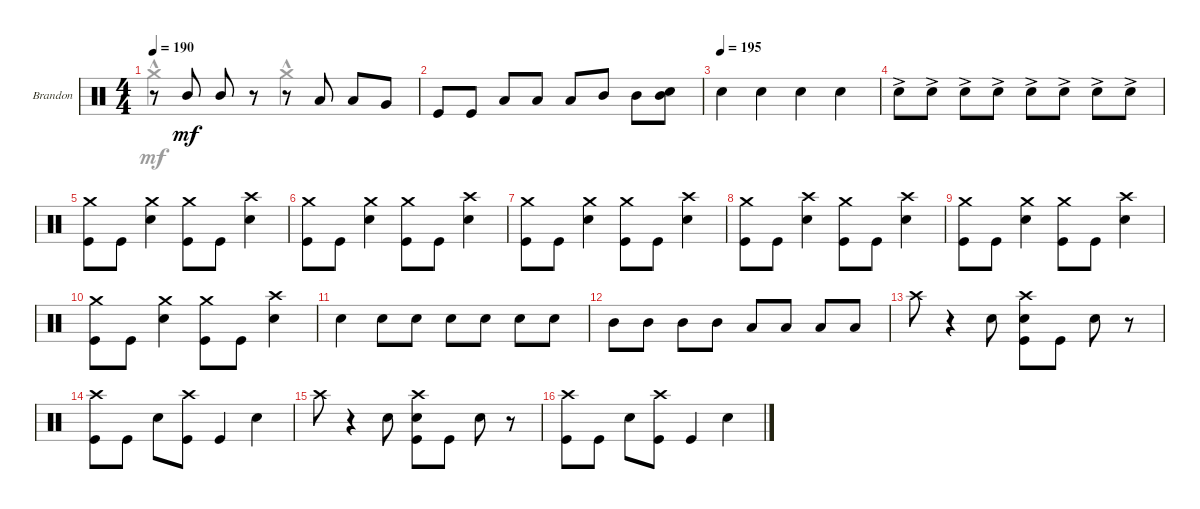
\defaultSystemsLayout 4
\bracketExtendMode groupsimilarinstruments
\firstSystemTrackNameOrientation horizontal
\otherSystemsTrackNameOrientation horizontal
\track ("Drumkit" "Brandon") {instrument percussion}
\staff {score}
\articulation defaults
\voice
\ts (4 4)
\tempo 190
\clef neutral
\scale
0.333333
\ks c
r.8{dy mf} "Mid Tom (hit)".8 "Mid Tom (hit)".8 r.8 r.8 "Low Tom (hit)".8 "Low Tom (hit)".8 "Very Low Tom (hit)".8 |
\scale
0.333333 "Kick (hit)".8 "Kick (hit)".8 "Low Tom (hit)".8 "Low Tom (hit)".8 "Low Tom (hit)".8 "Mid Tom (hit)".8 "Mid Tom (hit)".8 ("Snare (hit) 2" "Mid Tom (hit)").8 |
\tempo 195
\scale
0.333333 "Snare (hit) 2".4 "Snare (hit) 2".4 "Snare (hit) 2".4 "Snare (hit) 2".4 |
\scale
0.333333 "Snare (hit) 2"{ac}.8 "Snare (hit) 2"{ac}.8 "Snare (hit) 2"{ac}.8 "Snare (hit) 2"{ac}.8 "Snare (hit) 2"{ac}.8 "Snare (hit) 2"{ac}.8 "Snare (hit) 2"{ac}.8 "Snare (hit) 2"{ac}.8 |
\scale
0.333333 ("Kick (hit)" "Crash medium (hit)").8 "Kick (hit)".8 ("Snare (hit) 2" "Crash medium (hit)").4 ("Kick (hit)" "Crash medium (hit)").8 "Kick (hit)".8 ("Snare (hit) 2" "Crash high (hit)").4 |
\scale
0.333333 ("Kick (hit)" "Crash medium (hit)").8 "Kick (hit)".8 ("Snare (hit) 2" "Crash medium (hit)").4 ("Kick (hit)" "Crash medium (hit)").8 "Kick (hit)".8 ("Snare (hit) 2" "Crash high (hit)").4 |
\scale
0.333333 ("Kick (hit)" "Crash medium (hit)").8 "Kick (hit)".8 ("Snare (hit) 2" "Crash medium (hit)").4 ("Kick (hit)" "Crash medium (hit)").8 "Kick (hit)".8 ("Snare (hit) 2" "Crash high (hit)").4 |
\scale
0.333333 ("Kick (hit)" "Crash medium (hit)").8 "Kick (hit)".8 ("Snare (hit) 2" "Crash high (hit)").4 ("Kick (hit)" "Crash medium (hit)").8 "Kick (hit)".8 ("Snare (hit) 2" "Crash high (hit)").4 |
\scale
0.333333 ("Kick (hit)" "Crash medium (hit)").8 "Kick (hit)".8 ("Snare (hit) 2" "Crash medium (hit)").4 ("Kick (hit)" "Crash medium (hit)").8 "Kick (hit)".8 ("Snare (hit) 2" "Crash high (hit)").4 |
\scale
0.333333 ("Kick (hit)" "Crash medium (hit)").8 "Kick (hit)".8 ("Snare (hit) 2" "Crash medium (hit)").4 ("Kick (hit)" "Crash medium (hit)").8 "Kick (hit)".8 ("Snare (hit) 2" "Crash high (hit)").4 |
\scale
0.333333 "Snare (hit) 2".4 "Snare (hit) 2".8 "Snare (hit) 2".8 "Snare (hit) 2".8 "Snare (hit) 2".8 "Snare (hit) 2".8 "Snare (hit) 2".8 |
\scale
0.333333 "Mid Tom (hit)".8 "Mid Tom (hit)".8 "Mid Tom (hit)".8 "Mid Tom (hit)".8 "Low Tom (hit)".8 "Low Tom (hit)".8 "Low Tom (hit)".8 "Low Tom (hit)".8 |
\scale
0.333333 "Crash high (hit)".8 r.4 "Snare (hit) 2".8 ("Snare (hit) 2" "Crash high (hit)" "Kick (hit)").8 "Kick (hit)".8 "Snare (hit) 2".8 r.8 |
\scale
0.333333 ("Crash high (hit)" "Kick (hit)").8 "Kick (hit)".8 "Snare (hit) 2".8 ("Kick (hit)" "Crash high (hit)").8 "Kick (hit)".4 "Snare (hit) 2".4 |
\scale
0.333333 "Crash high (hit)".8 r.4 "Snare (hit) 2".8 ("Snare (hit) 2" "Crash high (hit)" "Kick (hit)").8 "Kick (hit)".8 "Snare (hit) 2".8 r.8 |
\scale
0.333333 ("Crash high (hit)" "Kick (hit)").8 "Kick (hit)".8 "Snare (hit) 2".8 ("Kick (hit)" "Crash high (hit)").8 "Kick (hit)".4 "Snare (hit) 2".4
\voice
\clef neutral
\ottava regular
\simile none
\scale
0.333333
\ks c "Crash medium (hit)"{hac}.2{dy mf} "Crash medium (hit)"{hac}.2
|
\scale
0.333333 |
\scale
0.333333 |
\scale
0.333333 |
\scale
0.333333 |
\scale
0.333333 |
\scale
0.333333 |
\scale
0.333333 |
\scale
0.333333 |
\scale
0.333333 |
\scale
0.333333 |
\scale
0.333333 |
\scale
0.333333 |
\scale
0.333333 |
\scale
0.333333 |
\scale
0.333333
